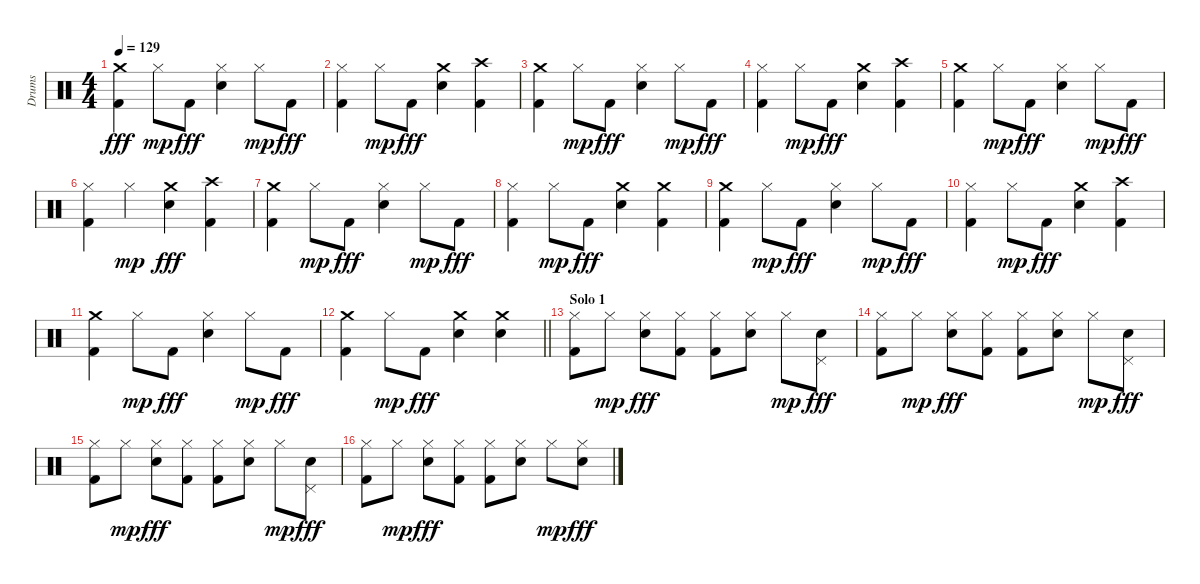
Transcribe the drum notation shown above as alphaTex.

\track ("Drums" "Drums") {instrument percussion}
\staff {score}
\articulation defaults
\ts (4 4)
\tempo 129
\clef neutral
\ks c
("Crash medium (hit)" "Kick (hit) 2").4{dy fff} "Hi-Hat (closed)".8{dy mp} "Kick (hit) 2".8{dy fff} ("Hi-Hat (closed)" "Electric Snare (hit)").4 "Hi-Hat (closed)".8{dy mp} "Kick (hit) 2".8{dy fff} |
("Hi-Hat (closed)" "Kick (hit) 2").4 "Hi-Hat (closed)".8{dy mp} "Kick (hit) 2".8{dy fff} ("Crash medium (hit)" "Electric Snare (hit)").4 ("Crash high (hit)" "Kick (hit) 2").4 |
("Crash medium (hit)" "Kick (hit) 2").4 "Hi-Hat (closed)".8{dy mp} "Kick (hit) 2".8{dy fff} ("Hi-Hat (closed)" "Electric Snare (hit)").4 "Hi-Hat (closed)".8{dy mp} "Kick (hit) 2".8{dy fff} |
("Hi-Hat (closed)" "Kick (hit) 2").4 "Hi-Hat (closed)".8{dy mp} "Kick (hit) 2".8{dy fff} ("Crash medium (hit)" "Electric Snare (hit)").4 ("Crash high (hit)" "Kick (hit) 2").4 |
("Crash medium (hit)" "Kick (hit) 2").4 "Hi-Hat (closed)".8{dy mp} "Kick (hit) 2".8{dy fff} ("Hi-Hat (closed)" "Electric Snare (hit)").4 "Hi-Hat (closed)".8{dy mp} "Kick (hit) 2".8{dy fff} |
("Hi-Hat (closed)" "Kick (hit) 2").4 "Hi-Hat (closed)".4{dy mp} ("Crash medium (hit)" "Electric Snare (hit)").4{dy fff} ("Crash high (hit)" "Kick (hit) 2").4 |
("Crash medium (hit)" "Kick (hit) 2").4 "Hi-Hat (closed)".8{dy mp} "Kick (hit) 2".8{dy fff} ("Hi-Hat (closed)" "Electric Snare (hit)").4 "Hi-Hat (closed)".8{dy mp} "Kick (hit) 2".8{dy fff} |
("Hi-Hat (closed)" "Kick (hit) 2").4 "Hi-Hat (closed)".8{dy mp} "Kick (hit) 2".8{dy fff} ("Crash medium (hit)" "Electric Snare (hit)").4 ("Crash medium (hit)" "Kick (hit) 2").4 |
("Crash medium (hit)" "Kick (hit) 2").4 "Hi-Hat (closed)".8{dy mp} "Kick (hit) 2".8{dy fff} ("Hi-Hat (closed)" "Electric Snare (hit)").4 "Hi-Hat (closed)".8{dy mp} "Kick (hit) 2".8{dy fff} |
("Hi-Hat (closed)" "Kick (hit) 2").4 "Hi-Hat (closed)".8{dy mp} "Kick (hit) 2".8{dy fff} ("Crash medium (hit)" "Electric Snare (hit)").4 ("Crash high (hit)" "Kick (hit) 2").4 |
("Crash medium (hit)" "Kick (hit) 2").4 "Hi-Hat (closed)".8{dy mp} "Kick (hit) 2".8{dy fff} ("Hi-Hat (closed)" "Electric Snare (hit)").4 "Hi-Hat (closed)".8{dy mp} "Kick (hit) 2".8{dy fff} |
\barLineRight lightlight
("Crash medium (hit)" "Kick (hit) 2").4 "Hi-Hat (closed)".8{dy mp} "Kick (hit) 2".8{dy fff} ("Crash medium (hit)" "Electric Snare (hit)").4 ("Crash medium (hit)" "Electric Snare (hit)").4 |
\section ("" "Solo 1")
("Hi-Hat (closed)" "Kick (hit) 2").8 "Hi-Hat (closed)".8{dy mp} ("Hi-Hat (closed)" "Electric Snare (hit)").8{dy fff} ("Hi-Hat (closed)" "Kick (hit) 2").8 ("Hi-Hat (closed)" "Kick (hit) 2").8 ("Hi-Hat (closed)" "Electric Snare (hit)").8 "Hi-Hat (closed)".8{dy mp} ("Pedal Hi-Hat (hit)" "Electric Snare (hit)").8{dy fff} |
("Hi-Hat (closed)" "Kick (hit) 2").8 "Hi-Hat (closed)".8{dy mp} ("Hi-Hat (closed)" "Electric Snare (hit)").8{dy fff} ("Hi-Hat (closed)" "Kick (hit) 2").8 ("Hi-Hat (closed)" "Kick (hit) 2").8 ("Hi-Hat (closed)" "Electric Snare (hit)").8 "Hi-Hat (closed)".8{dy mp} ("Pedal Hi-Hat (hit)" "Electric Snare (hit)").8{dy fff} |
("Hi-Hat (closed)" "Kick (hit) 2").8 "Hi-Hat (closed)".8{dy mp} ("Hi-Hat (closed)" "Electric Snare (hit)").8{dy fff} ("Hi-Hat (closed)" "Kick (hit) 2").8 ("Hi-Hat (closed)" "Kick (hit) 2").8 ("Hi-Hat (closed)" "Electric Snare (hit)").8 "Hi-Hat (closed)".8{dy mp} ("Pedal Hi-Hat (hit)" "Electric Snare (hit)").8{dy fff} |
("Hi-Hat (closed)" "Kick (hit) 2").8 "Hi-Hat (closed)".8{dy mp} ("Hi-Hat (closed)" "Electric Snare (hit)").8{dy fff} ("Hi-Hat (closed)" "Kick (hit) 2").8 ("Hi-Hat (closed)" "Kick (hit) 2").8 ("Hi-Hat (closed)" "Electric Snare (hit)").8 "Hi-Hat (closed)".8{dy mp} ("Hi-Hat (closed)" "Electric Snare (hit)").8{dy fff}
